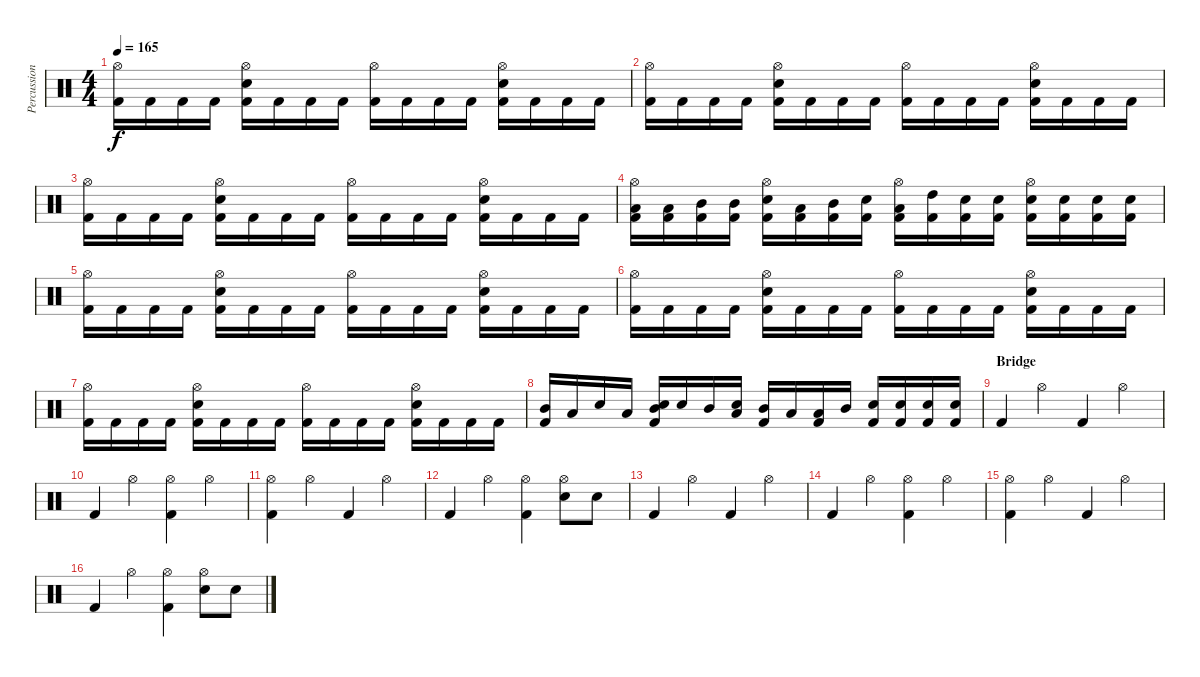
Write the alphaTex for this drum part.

\track ("Percussion" "Percussion") {instrument percussion}
\staff {score}
\articulation defaults
\ts (4 4)
\tempo 165
\clef neutral
\ks c
("Hi-Hat (open)" "Kick (hit) 2").16{dy f} "Kick (hit) 2".16 "Kick (hit) 2".16 "Kick (hit) 2".16 ("Hi-Hat (open)" "Snare (hit) 2" "Kick (hit) 2").16 "Kick (hit) 2".16 "Kick (hit) 2".16 "Kick (hit) 2".16 ("Hi-Hat (open)" "Kick (hit) 2").16 "Kick (hit) 2".16 "Kick (hit) 2".16 "Kick (hit) 2".16 ("Hi-Hat (open)" "Snare (hit) 2" "Kick (hit) 2").16 "Kick (hit) 2".16 "Kick (hit) 2".16 "Kick (hit) 2".16 |
("Hi-Hat (open)" "Kick (hit) 2").16 "Kick (hit) 2".16 "Kick (hit) 2".16 "Kick (hit) 2".16 ("Hi-Hat (open)" "Snare (hit) 2" "Kick (hit) 2").16 "Kick (hit) 2".16 "Kick (hit) 2".16 "Kick (hit) 2".16 ("Hi-Hat (open)" "Kick (hit) 2").16 "Kick (hit) 2".16 "Kick (hit) 2".16 "Kick (hit) 2".16 ("Hi-Hat (open)" "Snare (hit) 2" "Kick (hit) 2").16 "Kick (hit) 2".16 "Kick (hit) 2".16 "Kick (hit) 2".16 |
("Hi-Hat (open)" "Kick (hit) 2").16 "Kick (hit) 2".16 "Kick (hit) 2".16 "Kick (hit) 2".16 ("Hi-Hat (open)" "Snare (hit) 2" "Kick (hit) 2").16 "Kick (hit) 2".16 "Kick (hit) 2".16 "Kick (hit) 2".16 ("Hi-Hat (open)" "Kick (hit) 2").16 "Kick (hit) 2".16 "Kick (hit) 2".16 "Kick (hit) 2".16 ("Hi-Hat (open)" "Snare (hit) 2" "Kick (hit) 2").16 "Kick (hit) 2".16 "Kick (hit) 2".16 "Kick (hit) 2".16 |
("Hi-Hat (open)" "Low Tom (hit)" "Kick (hit) 2").16 ("Low Tom (hit)" "Kick (hit) 2").16 ("Mid Tom (hit)" "Kick (hit) 2").16 ("Mid Tom (hit)" "Kick (hit) 2").16 ("Hi-Hat (open)" "Snare (hit) 2" "Kick (hit) 2").16 ("Low Tom (hit)" "Kick (hit) 2").16 ("Mid Tom (hit)" "Kick (hit) 2").16 ("Snare (hit) 2" "Kick (hit) 2").16 ("Hi-Hat (open)" "Low Tom (hit)" "Kick (hit) 2").16 ("High Tom (hit)" "Kick (hit) 2").16 ("Snare (hit) 2" "Kick (hit) 2").16 ("Snare (hit) 2" "Kick (hit) 2").16 ("Hi-Hat (open)" "Snare (hit) 2" "Kick (hit) 2").16 ("Snare (hit) 2" "Kick (hit) 2").16 ("Snare (hit) 2" "Kick (hit) 2").16 ("Snare (hit) 2" "Kick (hit) 2").16 |
("Hi-Hat (open)" "Kick (hit) 2").16 "Kick (hit) 2".16 "Kick (hit) 2".16 "Kick (hit) 2".16 ("Hi-Hat (open)" "Snare (hit) 2" "Kick (hit) 2").16 "Kick (hit) 2".16 "Kick (hit) 2".16 "Kick (hit) 2".16 ("Hi-Hat (open)" "Kick (hit) 2").16 "Kick (hit) 2".16 "Kick (hit) 2".16 "Kick (hit) 2".16 ("Hi-Hat (open)" "Snare (hit) 2" "Kick (hit) 2").16 "Kick (hit) 2".16 "Kick (hit) 2".16 "Kick (hit) 2".16 |
("Hi-Hat (open)" "Kick (hit) 2").16 "Kick (hit) 2".16 "Kick (hit) 2".16 "Kick (hit) 2".16 ("Hi-Hat (open)" "Snare (hit) 2" "Kick (hit) 2").16 "Kick (hit) 2".16 "Kick (hit) 2".16 "Kick (hit) 2".16 ("Hi-Hat (open)" "Kick (hit) 2").16 "Kick (hit) 2".16 "Kick (hit) 2".16 "Kick (hit) 2".16 ("Hi-Hat (open)" "Snare (hit) 2" "Kick (hit) 2").16 "Kick (hit) 2".16 "Kick (hit) 2".16 "Kick (hit) 2".16 |
("Hi-Hat (open)" "Kick (hit) 2").16 "Kick (hit) 2".16 "Kick (hit) 2".16 "Kick (hit) 2".16 ("Hi-Hat (open)" "Snare (hit) 2" "Kick (hit) 2").16 "Kick (hit) 2".16 "Kick (hit) 2".16 "Kick (hit) 2".16 ("Hi-Hat (open)" "Kick (hit) 2").16 "Kick (hit) 2".16 "Kick (hit) 2".16 "Kick (hit) 2".16 ("Hi-Hat (open)" "Snare (hit) 2" "Kick (hit) 2").16 "Kick (hit) 2".16 "Kick (hit) 2".16 "Kick (hit) 2".16 |
("Mid Tom (hit)" "Kick (hit) 2").16 "Low Tom (hit)".16 "Snare (hit) 2".16 "Low Tom (hit)".16 ("Mid Tom (hit)" "Snare (hit) 2" "Kick (hit) 2").16 "Snare (hit) 2".16 "Mid Tom (hit)".16 ("Low Tom (hit)" "Snare (hit) 2").16 ("Mid Tom (hit)" "Kick (hit) 2").16 "Low Tom (hit)".16 ("Low Tom (hit)" "Kick (hit) 2").16 "Mid Tom (hit)".16 ("Snare (hit) 2" "Kick (hit) 2").16 ("Snare (hit) 2" "Kick (hit) 2").16 ("Snare (hit) 2" "Kick (hit) 2").16 ("Snare (hit) 2" "Kick (hit) 2").16 |
\section ("" "Bridge")
"Kick (hit) 2".4 "Hi-Hat (open)".4 "Kick (hit) 2".4 "Hi-Hat (open)".4 |
"Kick (hit) 2".4 "Hi-Hat (open)".4 ("Hi-Hat (open)" "Kick (hit) 2").4 "Hi-Hat (open)".4 |
("Hi-Hat (open)" "Kick (hit) 2").4 "Hi-Hat (open)".4 "Kick (hit) 2".4 "Hi-Hat (open)".4 |
"Kick (hit) 2".4 "Hi-Hat (open)".4 ("Hi-Hat (open)" "Kick (hit) 2").4 ("Hi-Hat (open)" "Snare (hit) 2").8 "Snare (hit) 2".8 |
"Kick (hit) 2".4 "Hi-Hat (open)".4 "Kick (hit) 2".4 "Hi-Hat (open)".4 |
"Kick (hit) 2".4 "Hi-Hat (open)".4 ("Hi-Hat (open)" "Kick (hit) 2").4 "Hi-Hat (open)".4 |
("Hi-Hat (open)" "Kick (hit) 2").4 "Hi-Hat (open)".4 "Kick (hit) 2".4 "Hi-Hat (open)".4 |
"Kick (hit) 2".4 "Hi-Hat (open)".4 ("Hi-Hat (open)" "Kick (hit) 2").4 ("Hi-Hat (open)" "Snare (hit) 2").8 "Snare (hit) 2".8
